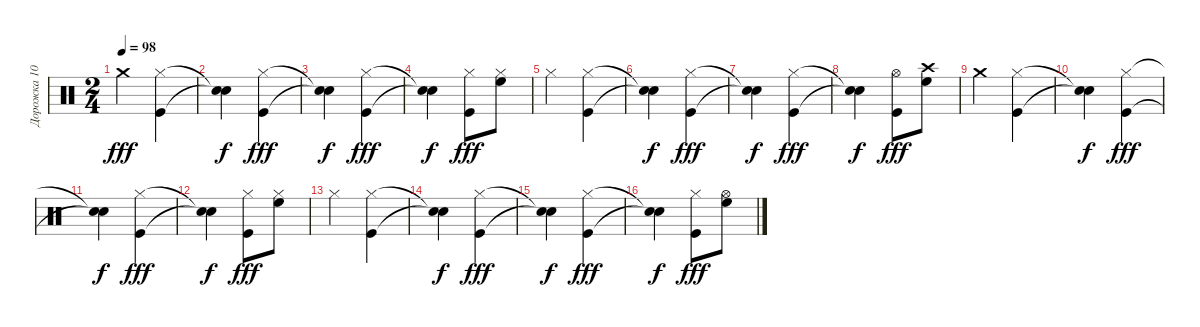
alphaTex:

\track ("Дорожка 10" "Дорожка 10") {instrument percussion}
\staff {score}
\articulation defaults
\ts (2 4)
\tempo 98
\clef neutral
\ks c "Crash medium (hit)".4{dy fff}
("Kick (hit)" "Hi-Hat (closed)").4 |
("Snare (hit)"{t} "Snare (hit)"{t}).4{dy f} ("Kick (hit)" "Hi-Hat (closed)").4{dy fff} |
("Snare (hit)"{t} "Snare (hit)"{t}).4{dy f} ("Kick (hit)" "Hi-Hat (closed)").4{dy fff} |
("Snare (hit)"{t} "Snare (hit)"{t}).4{dy f} ("Kick (hit)" "Hi-Hat (closed)").8{dy fff} ("High Floor Tom (hit)" "Hi-Hat (closed)").8 |
"Hi-Hat (closed)".4 ("Kick (hit)" "Hi-Hat (closed)").4 |
("Snare (hit)"{t} "Snare (hit)"{t}).4{dy f} ("Kick (hit)" "Hi-Hat (closed)").4{dy fff} |
("Snare (hit)"{t} "Snare (hit)"{t}).4{dy f} ("Kick (hit)" "Hi-Hat (closed)").4{dy fff} |
("Snare (hit)"{t} "Snare (hit)"{t}).4{dy f} ("Kick (hit)" "Hi-Hat (open)").8{dy fff} ("High Floor Tom (hit)" "Crash high (hit)").8 |
"Crash medium (hit)".4 ("Kick (hit)" "Hi-Hat (closed)").4 |
("Snare (hit)"{t} "Snare (hit)"{t}).4{dy f} ("Kick (hit)" "Hi-Hat (closed)").4{dy fff} |
("Snare (hit)"{t} "Snare (hit)"{t}).4{dy f} ("Kick (hit)" "Hi-Hat (closed)").4{dy fff} |
("Snare (hit)"{t} "Snare (hit)"{t}).4{dy f} ("Kick (hit)" "Hi-Hat (closed)").8{dy fff} ("High Floor Tom (hit)" "Hi-Hat (closed)").8 |
"Hi-Hat (closed)".4 ("Kick (hit)" "Hi-Hat (closed)").4 |
("Snare (hit)"{t} "Snare (hit)"{t}).4{dy f} ("Kick (hit)" "Hi-Hat (closed)").4{dy fff} |
("Snare (hit)"{t} "Snare (hit)"{t}).4{dy f} ("Kick (hit)" "Hi-Hat (closed)").4{dy fff} |
("Snare (hit)"{t} "Snare (hit)"{t}).4{dy f} ("Kick (hit)" "Hi-Hat (closed)").8{dy fff} ("High Floor Tom (hit)" "Hi-Hat (open)").8
